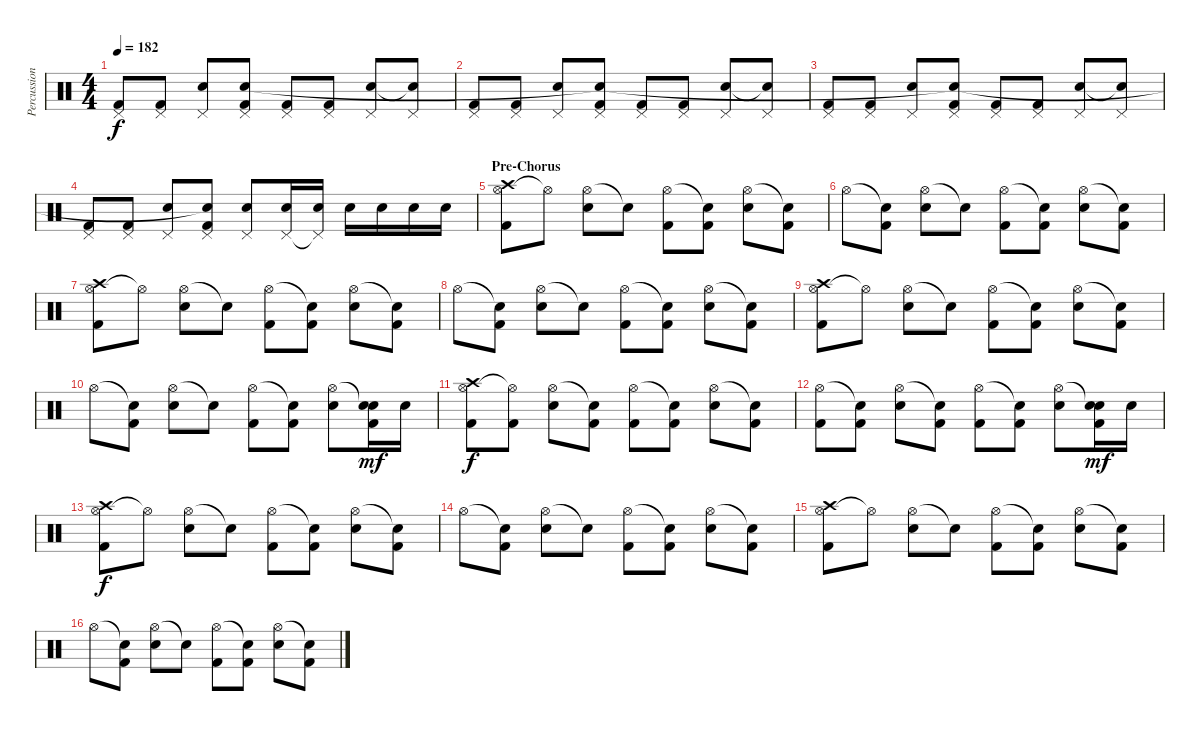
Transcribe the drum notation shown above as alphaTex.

\track ("Percussion" "Percussion") {instrument percussion}
\staff {score}
\articulation defaults
\ts (4 4)
\tempo 182
\clef neutral
\ks c
("Pedal Hi-Hat (hit)" "Kick (hit) 2").8{dy f} ("Pedal Hi-Hat (hit)" "Kick (hit) 2").8 ("Pedal Hi-Hat (hit)" "Electric Snare (hit)").8 ("Pedal Hi-Hat (hit)" "Kick (hit) 2" "Snare (hit)"{t}).8 ("Pedal Hi-Hat (hit)" "Kick (hit) 2").8 ("Pedal Hi-Hat (hit)" "Kick (hit) 2").8 ("Pedal Hi-Hat (hit)" "Electric Snare (hit)").8 ("Pedal Hi-Hat (hit)" "Snare (hit)"{t}).8 |
("Pedal Hi-Hat (hit)" "Kick (hit) 2").8 ("Pedal Hi-Hat (hit)" "Kick (hit) 2").8 ("Pedal Hi-Hat (hit)" "Electric Snare (hit)").8 ("Pedal Hi-Hat (hit)" "Kick (hit) 2" "Snare (hit)"{t}).8 ("Pedal Hi-Hat (hit)" "Kick (hit) 2").8 ("Pedal Hi-Hat (hit)" "Kick (hit) 2").8 ("Pedal Hi-Hat (hit)" "Electric Snare (hit)").8 ("Pedal Hi-Hat (hit)" "Snare (hit)"{t}).8 |
("Pedal Hi-Hat (hit)" "Kick (hit) 2").8 ("Pedal Hi-Hat (hit)" "Kick (hit) 2").8 ("Pedal Hi-Hat (hit)" "Electric Snare (hit)").8 ("Pedal Hi-Hat (hit)" "Kick (hit) 2" "Snare (hit)"{t}).8 ("Pedal Hi-Hat (hit)" "Kick (hit) 2").8 ("Pedal Hi-Hat (hit)" "Kick (hit) 2").8 ("Pedal Hi-Hat (hit)" "Electric Snare (hit)").8 ("Pedal Hi-Hat (hit)" "Snare (hit)"{t}).8 |
("Pedal Hi-Hat (hit)" "Kick (hit) 2").8 ("Pedal Hi-Hat (hit)" "Kick (hit) 2").8 ("Pedal Hi-Hat (hit)" "Electric Snare (hit)").8 ("Pedal Hi-Hat (hit)" "Kick (hit) 2" "Snare (hit)"{t}).8 ("Pedal Hi-Hat (hit)" "Electric Snare (hit)").8 ("Pedal Hi-Hat (hit)" "Electric Snare (hit)").16 ("Pedal Hi-Hat (hit)"{t} "Electric Snare (hit)").16 "Electric Snare (hit)".16 "Electric Snare (hit)".16 "Electric Snare (hit)".16 "Electric Snare (hit)".16 |
\section ("" "Pre-Chorus")
("Hi-Hat (open)" "Kick (hit) 2" "Crash high (hit)").8 "Hi-Hat (open)"{t}.8 ("Hi-Hat (open)" "Electric Snare (hit)").8 "Snare (hit)"{t}.8 ("Hi-Hat (open)" "Kick (hit) 2").8 ("Snare (hit)"{t} "Kick (hit) 2").8 ("Hi-Hat (open)" "Electric Snare (hit)").8 ("Snare (hit)"{t} "Kick (hit) 2").8 |
"Hi-Hat (open)".8 ("Snare (hit)"{t} "Kick (hit) 2").8 ("Hi-Hat (open)" "Electric Snare (hit)").8 "Snare (hit)"{t}.8 ("Hi-Hat (open)" "Kick (hit) 2").8 ("Snare (hit)"{t} "Kick (hit) 2").8 ("Hi-Hat (open)" "Electric Snare (hit)").8 ("Snare (hit)"{t} "Kick (hit) 2").8 |
("Hi-Hat (open)" "Kick (hit) 2" "Crash high (hit)").8 "Hi-Hat (open)"{t}.8 ("Hi-Hat (open)" "Electric Snare (hit)").8 "Snare (hit)"{t}.8 ("Hi-Hat (open)" "Kick (hit) 2").8 ("Snare (hit)"{t} "Kick (hit) 2").8 ("Hi-Hat (open)" "Electric Snare (hit)").8 ("Snare (hit)"{t} "Kick (hit) 2").8 |
"Hi-Hat (open)".8 ("Snare (hit)"{t} "Kick (hit) 2").8 ("Hi-Hat (open)" "Electric Snare (hit)").8 "Snare (hit)"{t}.8 ("Hi-Hat (open)" "Kick (hit) 2").8 ("Snare (hit)"{t} "Kick (hit) 2").8 ("Hi-Hat (open)" "Electric Snare (hit)").8 ("Snare (hit)"{t} "Kick (hit) 2").8 |
("Hi-Hat (open)" "Kick (hit) 2" "Crash high (hit)").8 "Hi-Hat (open)"{t}.8 ("Hi-Hat (open)" "Electric Snare (hit)").8 "Snare (hit)"{t}.8 ("Hi-Hat (open)" "Kick (hit) 2").8 ("Snare (hit)"{t} "Kick (hit) 2").8 ("Hi-Hat (open)" "Electric Snare (hit)").8 ("Snare (hit)"{t} "Kick (hit) 2").8 |
"Hi-Hat (open)".8 ("Snare (hit)"{t} "Kick (hit) 2").8 ("Hi-Hat (open)" "Electric Snare (hit)").8 "Snare (hit)"{t}.8 ("Hi-Hat (open)" "Kick (hit) 2").8 ("Snare (hit)"{t} "Kick (hit) 2").8 ("Hi-Hat (open)" "Electric Snare (hit)").8 ("Snare (hit)"{t} "Kick (hit) 2" "Electric Snare (hit)").16{dy mf} "Electric Snare (hit)".16 |
("Hi-Hat (open)" "Kick (hit) 2" "Crash high (hit)").8{dy f} ("Hi-Hat (open)"{t} "Kick (hit) 2").8 ("Hi-Hat (open)" "Electric Snare (hit)").8 ("Snare (hit)"{t} "Kick (hit) 2").8 ("Hi-Hat (open)" "Kick (hit) 2").8 ("Snare (hit)"{t} "Kick (hit) 2").8 ("Hi-Hat (open)" "Electric Snare (hit)").8 ("Snare (hit)"{t} "Kick (hit) 2").8 |
("Hi-Hat (open)" "Kick (hit) 2").8 ("Snare (hit)"{t} "Kick (hit) 2").8 ("Hi-Hat (open)" "Electric Snare (hit)").8 ("Snare (hit)"{t} "Kick (hit) 2").8 ("Hi-Hat (open)" "Kick (hit) 2").8 ("Snare (hit)"{t} "Kick (hit) 2").8 ("Hi-Hat (open)" "Electric Snare (hit)").8 ("Snare (hit)"{t} "Kick (hit) 2" "Electric Snare (hit)").16{dy mf} "Electric Snare (hit)".16 |
("Hi-Hat (open)" "Kick (hit) 2" "Crash high (hit)").8{dy f} "Hi-Hat (open)"{t}.8 ("Hi-Hat (open)" "Electric Snare (hit)").8 "Snare (hit)"{t}.8 ("Hi-Hat (open)" "Kick (hit) 2").8 ("Snare (hit)"{t} "Kick (hit) 2").8 ("Hi-Hat (open)" "Electric Snare (hit)").8 ("Snare (hit)"{t} "Kick (hit) 2").8 |
"Hi-Hat (open)".8 ("Snare (hit)"{t} "Kick (hit) 2").8 ("Hi-Hat (open)" "Electric Snare (hit)").8 "Snare (hit)"{t}.8 ("Hi-Hat (open)" "Kick (hit) 2").8 ("Snare (hit)"{t} "Kick (hit) 2").8 ("Hi-Hat (open)" "Electric Snare (hit)").8 ("Snare (hit)"{t} "Kick (hit) 2").8 |
("Hi-Hat (open)" "Kick (hit) 2" "Crash high (hit)").8 "Hi-Hat (open)"{t}.8 ("Hi-Hat (open)" "Electric Snare (hit)").8 "Snare (hit)"{t}.8 ("Hi-Hat (open)" "Kick (hit) 2").8 ("Snare (hit)"{t} "Kick (hit) 2").8 ("Hi-Hat (open)" "Electric Snare (hit)").8 ("Snare (hit)"{t} "Kick (hit) 2").8 |
"Hi-Hat (open)".8 ("Snare (hit)"{t} "Kick (hit) 2").8 ("Hi-Hat (open)" "Electric Snare (hit)").8 "Snare (hit)"{t}.8 ("Hi-Hat (open)" "Kick (hit) 2").8 ("Snare (hit)"{t} "Kick (hit) 2").8 ("Hi-Hat (open)" "Electric Snare (hit)").8 ("Snare (hit)"{t} "Kick (hit) 2").8
